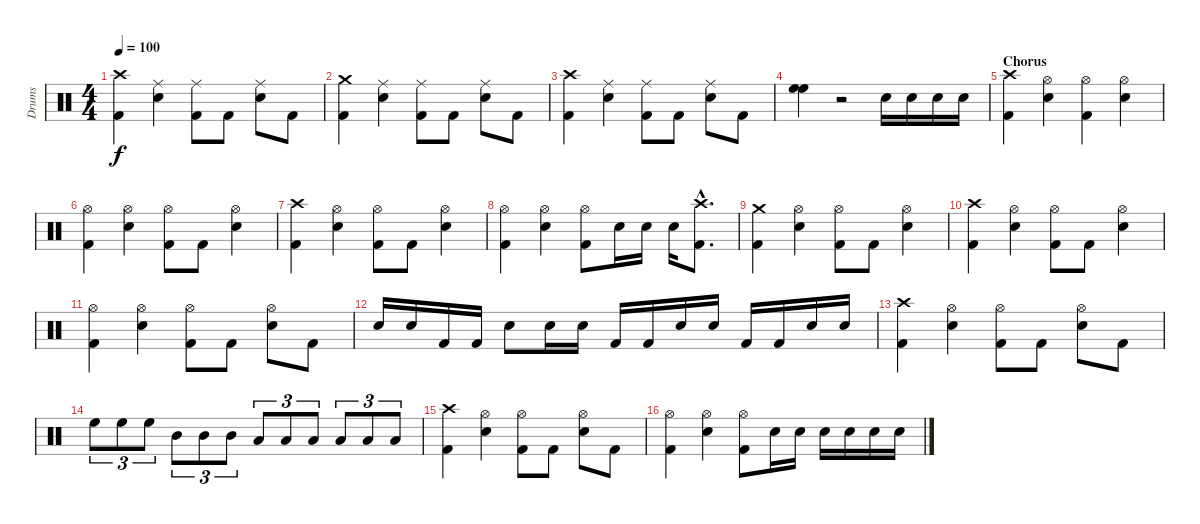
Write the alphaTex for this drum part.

\track ("Drums" "Drums") {instrument percussion}
\staff {score}
\articulation defaults
\ts (4 4)
\tempo 100
\clef neutral
\ks c
("Crash high (hit)" "Kick (hit) 2").4{dy f} ("Ride (middle)" "Snare (hit) 2").4 ("Ride (middle)" "Kick (hit) 2").8 "Kick (hit) 2".8 ("Ride (middle)" "Snare (hit) 2").8 "Kick (hit) 2".8 |
("Crash medium (hit)" "Kick (hit) 2").4 ("Ride (middle)" "Snare (hit) 2").4 ("Ride (middle)" "Kick (hit) 2").8 "Kick (hit) 2".8 ("Ride (middle)" "Snare (hit) 2").8 "Kick (hit) 2".8 |
("Crash high (hit)" "Kick (hit) 2").4 ("Ride (middle)" "Snare (hit) 2").4 ("Ride (middle)" "Kick (hit) 2").8 "Kick (hit) 2".8 ("Ride (middle)" "Snare (hit) 2").8 "Kick (hit) 2".8 |
("High Floor Tom (hit)" "High Floor Tom (hit)").4 r.2 "Snare (hit) 2".16 "Snare (hit) 2".16 "Snare (hit) 2".16 "Snare (hit) 2".16 |
\section ("" "Chorus")
("Crash high (hit)" "Kick (hit) 2").4 ("Hi-Hat (open)" "Snare (hit) 2").4 ("Hi-Hat (open)" "Kick (hit) 2").4 ("Hi-Hat (open)" "Snare (hit) 2").4 |
("Hi-Hat (open)" "Kick (hit) 2").4 ("Hi-Hat (open)" "Snare (hit) 2").4 ("Hi-Hat (open)" "Kick (hit) 2").8 "Kick (hit) 2".8 ("Hi-Hat (open)" "Snare (hit) 2").4 |
("Crash high (hit)" "Kick (hit) 2").4 ("Hi-Hat (open)" "Snare (hit) 2").4 ("Hi-Hat (open)" "Kick (hit) 2").8 "Kick (hit) 2".8 ("Hi-Hat (open)" "Snare (hit) 2").4 |
("Hi-Hat (open)" "Kick (hit) 2").4 ("Hi-Hat (open)" "Snare (hit) 2").4 ("Hi-Hat (open)" "Kick (hit) 2").8 "Snare (hit) 2".16 "Snare (hit) 2".16 "Snare (hit) 2".16 ("Crash high (hit)"{hac} "Kick (hit) 2"{hac}).8{d} |
("Crash medium (hit)" "Kick (hit) 2").4 ("Hi-Hat (open)" "Snare (hit) 2").4 ("Hi-Hat (open)" "Kick (hit) 2").8 "Kick (hit) 2".8 ("Hi-Hat (open)" "Snare (hit) 2").4 |
("Crash high (hit)" "Kick (hit) 2").4 ("Hi-Hat (open)" "Snare (hit) 2").4 ("Hi-Hat (open)" "Kick (hit) 2").8 "Kick (hit) 2".8 ("Hi-Hat (open)" "Snare (hit) 2").4 |
("Hi-Hat (open)" "Kick (hit) 2").4 ("Hi-Hat (open)" "Snare (hit) 2").4 ("Hi-Hat (open)" "Kick (hit) 2").8 "Kick (hit) 2".8 ("Hi-Hat (open)" "Snare (hit) 2").8 "Kick (hit) 2".8 |
"Snare (hit) 2".16 "Snare (hit) 2".16 "Kick (hit) 2".16 "Kick (hit) 2".16 "Snare (hit) 2".8 "Snare (hit) 2".16 "Snare (hit) 2".16 "Kick (hit) 2".16 "Kick (hit) 2".16 "Snare (hit) 2".16 "Snare (hit) 2".16 "Kick (hit) 2".16 "Kick (hit) 2".16 "Snare (hit) 2".16 "Snare (hit) 2".16 |
("Crash high (hit)" "Kick (hit) 2").4 ("Hi-Hat (open)" "Snare (hit) 2").4 ("Hi-Hat (open)" "Kick (hit) 2").8 "Kick (hit) 2".8 ("Hi-Hat (open)" "Snare (hit) 2").8 "Kick (hit) 2".8 |
"High Floor Tom (hit)".8{tu (3 2)} "High Floor Tom (hit)".8{tu (3 2)} "High Floor Tom (hit)".8{tu (3 2)} "Mid Tom (hit)".8{tu (3 2)} "Mid Tom (hit)".8{tu (3 2)} "Mid Tom (hit)".8{tu (3 2)} "Low Tom (hit)".8{tu (3 2)} "Low Tom (hit)".8{tu (3 2)} "Low Tom (hit)".8{tu (3 2)} "Low Floor Tom (hit)".8{tu (3 2)} "Low Floor Tom (hit)".8{tu (3 2)} "Low Floor Tom (hit)".8{tu (3 2)} |
("Crash high (hit)" "Kick (hit) 2").4 ("Hi-Hat (open)" "Snare (hit) 2").4 ("Hi-Hat (open)" "Kick (hit) 2").8 "Kick (hit) 2".8 ("Hi-Hat (open)" "Snare (hit) 2").8 "Kick (hit) 2".8 |
("Hi-Hat (open)" "Kick (hit) 2").4 ("Hi-Hat (open)" "Snare (hit) 2").4 ("Hi-Hat (open)" "Kick (hit) 2").8 "Snare (hit) 2".16 "Snare (hit) 2".16 "Snare (hit) 2".16 "Snare (hit) 2".16 "Snare (hit) 2".16 "Snare (hit) 2".16
